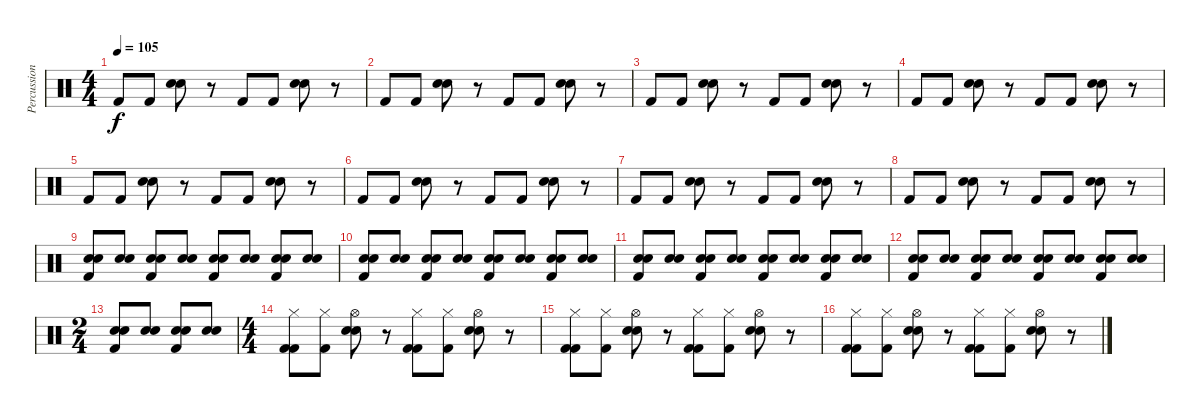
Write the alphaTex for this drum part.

\track ("Percussions" "Percussion") {instrument percussion}
\staff {score}
\articulation defaults
\ts (4 4)
\tempo 105
\clef neutral
\ks c "Kick (hit) 2".8{dy f} "Kick (hit) 2".8
("Electric Snare (hit)" "Electric Snare (hit)").8 r.8 "Kick (hit) 2".8 "Kick (hit) 2".8 ("Electric Snare (hit)" "Electric Snare (hit)").8 r.8 |
"Kick (hit) 2".8 "Kick (hit) 2".8 ("Electric Snare (hit)" "Electric Snare (hit)").8 r.8 "Kick (hit) 2".8 "Kick (hit) 2".8 ("Electric Snare (hit)" "Electric Snare (hit)").8 r.8 |
"Kick (hit) 2".8 "Kick (hit) 2".8 ("Electric Snare (hit)" "Electric Snare (hit)").8 r.8 "Kick (hit) 2".8 "Kick (hit) 2".8 ("Electric Snare (hit)" "Electric Snare (hit)").8 r.8 |
"Kick (hit) 2".8 "Kick (hit) 2".8 ("Electric Snare (hit)" "Electric Snare (hit)").8 r.8 "Kick (hit) 2".8 "Kick (hit) 2".8 ("Electric Snare (hit)" "Electric Snare (hit)").8 r.8 |
"Kick (hit) 2".8 "Kick (hit) 2".8 ("Electric Snare (hit)" "Electric Snare (hit)").8 r.8 "Kick (hit) 2".8 "Kick (hit) 2".8 ("Electric Snare (hit)" "Electric Snare (hit)").8 r.8 |
"Kick (hit) 2".8 "Kick (hit) 2".8 ("Electric Snare (hit)" "Electric Snare (hit)").8 r.8 "Kick (hit) 2".8 "Kick (hit) 2".8 ("Electric Snare (hit)" "Electric Snare (hit)").8 r.8 |
"Kick (hit) 2".8 "Kick (hit) 2".8 ("Electric Snare (hit)" "Electric Snare (hit)").8 r.8 "Kick (hit) 2".8 "Kick (hit) 2".8 ("Electric Snare (hit)" "Electric Snare (hit)").8 r.8 |
"Kick (hit) 2".8 "Kick (hit) 2".8 ("Electric Snare (hit)" "Electric Snare (hit)").8 r.8 "Kick (hit) 2".8 "Kick (hit) 2".8 ("Electric Snare (hit)" "Electric Snare (hit)").8 r.8 |
("Electric Snare (hit)" "Electric Snare (hit)" "Kick (hit) 2").8 ("Electric Snare (hit)" "Electric Snare (hit)").8 ("Electric Snare (hit)" "Electric Snare (hit)" "Kick (hit) 2").8 ("Electric Snare (hit)" "Electric Snare (hit)").8 ("Electric Snare (hit)" "Electric Snare (hit)" "Kick (hit) 2").8 ("Electric Snare (hit)" "Electric Snare (hit)").8 ("Electric Snare (hit)" "Electric Snare (hit)" "Kick (hit) 2").8 ("Electric Snare (hit)" "Electric Snare (hit)").8 |
("Electric Snare (hit)" "Electric Snare (hit)" "Kick (hit) 2").8 ("Electric Snare (hit)" "Electric Snare (hit)").8 ("Electric Snare (hit)" "Electric Snare (hit)" "Kick (hit) 2").8 ("Electric Snare (hit)" "Electric Snare (hit)").8 ("Electric Snare (hit)" "Electric Snare (hit)" "Kick (hit) 2").8 ("Electric Snare (hit)" "Electric Snare (hit)").8 ("Electric Snare (hit)" "Electric Snare (hit)" "Kick (hit) 2").8 ("Electric Snare (hit)" "Electric Snare (hit)").8 |
("Electric Snare (hit)" "Electric Snare (hit)" "Kick (hit) 2").8 ("Electric Snare (hit)" "Electric Snare (hit)").8 ("Electric Snare (hit)" "Electric Snare (hit)" "Kick (hit) 2").8 ("Electric Snare (hit)" "Electric Snare (hit)").8 ("Electric Snare (hit)" "Electric Snare (hit)" "Kick (hit) 2").8 ("Electric Snare (hit)" "Electric Snare (hit)").8 ("Electric Snare (hit)" "Electric Snare (hit)" "Kick (hit) 2").8 ("Electric Snare (hit)" "Electric Snare (hit)").8 |
("Electric Snare (hit)" "Electric Snare (hit)" "Kick (hit) 2").8 ("Electric Snare (hit)" "Electric Snare (hit)").8 ("Electric Snare (hit)" "Electric Snare (hit)" "Kick (hit) 2").8 ("Electric Snare (hit)" "Electric Snare (hit)").8 ("Electric Snare (hit)" "Electric Snare (hit)" "Kick (hit) 2").8 ("Electric Snare (hit)" "Electric Snare (hit)").8 ("Electric Snare (hit)" "Electric Snare (hit)" "Kick (hit) 2").8 ("Electric Snare (hit)" "Electric Snare (hit)").8 |
\ts (2 4)
("Electric Snare (hit)" "Electric Snare (hit)" "Kick (hit) 2").8 ("Electric Snare (hit)" "Electric Snare (hit)").8 ("Electric Snare (hit)" "Electric Snare (hit)" "Kick (hit) 2").8 ("Electric Snare (hit)" "Electric Snare (hit)").8 |
\ts (4 4)
("Hi-Hat (closed)" "Kick (hit) 2" "Kick (hit) 2").8{volume 12} ("Hi-Hat (closed)" "Kick (hit) 2").8 ("Hi-Hat (open)" "Electric Snare (hit)" "Electric Snare (hit)").8 r.8 ("Hi-Hat (closed)" "Kick (hit) 2" "Kick (hit) 2").8 ("Hi-Hat (closed)" "Kick (hit) 2").8 ("Hi-Hat (open)" "Electric Snare (hit)" "Electric Snare (hit)").8 r.8 |
("Hi-Hat (closed)" "Kick (hit) 2" "Kick (hit) 2").8{volume 12} ("Hi-Hat (closed)" "Kick (hit) 2").8 ("Hi-Hat (open)" "Electric Snare (hit)" "Electric Snare (hit)").8 r.8 ("Hi-Hat (closed)" "Kick (hit) 2" "Kick (hit) 2").8 ("Hi-Hat (closed)" "Kick (hit) 2").8 ("Hi-Hat (open)" "Electric Snare (hit)" "Electric Snare (hit)").8 r.8 |
("Hi-Hat (closed)" "Kick (hit) 2" "Kick (hit) 2").8{volume 12} ("Hi-Hat (closed)" "Kick (hit) 2").8 ("Hi-Hat (open)" "Electric Snare (hit)" "Electric Snare (hit)").8 r.8 ("Hi-Hat (closed)" "Kick (hit) 2" "Kick (hit) 2").8 ("Hi-Hat (closed)" "Kick (hit) 2").8 ("Hi-Hat (open)" "Electric Snare (hit)" "Electric Snare (hit)").8 r.8
